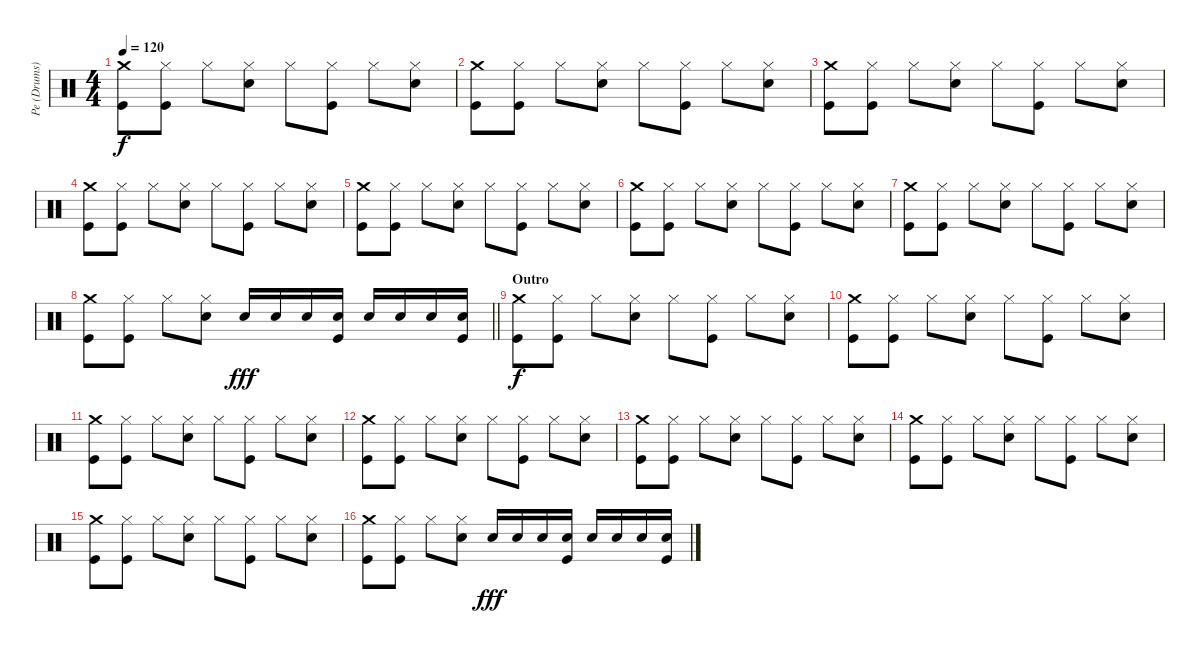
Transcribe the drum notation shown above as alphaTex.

\track ("Pe (Drums)" "Pe (Drums)") {instrument percussion}
\staff {score}
\articulation defaults
\ts (4 4)
\tempo 120
\clef neutral
\ks c
("Crash medium (hit)" "Kick (hit)").8{dy f} ("Hi-Hat (closed)" "Kick (hit)").8 "Hi-Hat (closed)".8 ("Hi-Hat (closed)" "Electric Snare (hit)").8 "Hi-Hat (closed)".8 ("Hi-Hat (closed)" "Kick (hit)").8 "Hi-Hat (closed)".8 ("Hi-Hat (closed)" "Electric Snare (hit)").8 |
("Crash medium (hit)" "Kick (hit)").8 ("Hi-Hat (closed)" "Kick (hit)").8 "Hi-Hat (closed)".8 ("Hi-Hat (closed)" "Electric Snare (hit)").8 "Hi-Hat (closed)".8 ("Hi-Hat (closed)" "Kick (hit)").8 "Hi-Hat (closed)".8 ("Hi-Hat (closed)" "Electric Snare (hit)").8 |
("Crash medium (hit)" "Kick (hit)").8 ("Hi-Hat (closed)" "Kick (hit)").8 "Hi-Hat (closed)".8 ("Hi-Hat (closed)" "Electric Snare (hit)").8 "Hi-Hat (closed)".8 ("Hi-Hat (closed)" "Kick (hit)").8 "Hi-Hat (closed)".8 ("Hi-Hat (closed)" "Electric Snare (hit)").8 |
("Crash medium (hit)" "Kick (hit)").8 ("Hi-Hat (closed)" "Kick (hit)").8 "Hi-Hat (closed)".8 ("Hi-Hat (closed)" "Electric Snare (hit)").8 "Hi-Hat (closed)".8 ("Hi-Hat (closed)" "Kick (hit)").8 "Hi-Hat (closed)".8 ("Hi-Hat (closed)" "Electric Snare (hit)").8 |
("Crash medium (hit)" "Kick (hit)").8 ("Hi-Hat (closed)" "Kick (hit)").8 "Hi-Hat (closed)".8 ("Hi-Hat (closed)" "Electric Snare (hit)").8 "Hi-Hat (closed)".8 ("Hi-Hat (closed)" "Kick (hit)").8 "Hi-Hat (closed)".8 ("Hi-Hat (closed)" "Electric Snare (hit)").8 |
("Crash medium (hit)" "Kick (hit)").8 ("Hi-Hat (closed)" "Kick (hit)").8 "Hi-Hat (closed)".8 ("Hi-Hat (closed)" "Electric Snare (hit)").8 "Hi-Hat (closed)".8 ("Hi-Hat (closed)" "Kick (hit)").8 "Hi-Hat (closed)".8 ("Hi-Hat (closed)" "Electric Snare (hit)").8 |
("Crash medium (hit)" "Kick (hit)").8 ("Hi-Hat (closed)" "Kick (hit)").8 "Hi-Hat (closed)".8 ("Hi-Hat (closed)" "Electric Snare (hit)").8 "Hi-Hat (closed)".8 ("Hi-Hat (closed)" "Kick (hit)").8 "Hi-Hat (closed)".8 ("Hi-Hat (closed)" "Electric Snare (hit)").8 |
\barLineRight lightlight
("Crash medium (hit)" "Kick (hit)").8 ("Hi-Hat (closed)" "Kick (hit)").8 "Hi-Hat (closed)".8 ("Hi-Hat (closed)" "Electric Snare (hit)").8 "Electric Snare (hit)".16{dy fff} "Electric Snare (hit)".16 "Electric Snare (hit)".16 ("Electric Snare (hit)" "Kick (hit)").16 "Electric Snare (hit)".16 "Electric Snare (hit)".16 "Electric Snare (hit)".16 ("Electric Snare (hit)" "Kick (hit)").16 |
\section ("" "Outro")
("Crash medium (hit)" "Kick (hit)").8{dy f} ("Hi-Hat (closed)" "Kick (hit)").8 "Hi-Hat (closed)".8 ("Hi-Hat (closed)" "Electric Snare (hit)").8 "Hi-Hat (closed)".8 ("Hi-Hat (closed)" "Kick (hit)").8 "Hi-Hat (closed)".8 ("Hi-Hat (closed)" "Electric Snare (hit)").8 |
("Crash medium (hit)" "Kick (hit)").8 ("Hi-Hat (closed)" "Kick (hit)").8 "Hi-Hat (closed)".8 ("Hi-Hat (closed)" "Electric Snare (hit)").8 "Hi-Hat (closed)".8 ("Hi-Hat (closed)" "Kick (hit)").8 "Hi-Hat (closed)".8 ("Hi-Hat (closed)" "Electric Snare (hit)").8 |
("Crash medium (hit)" "Kick (hit)").8 ("Hi-Hat (closed)" "Kick (hit)").8 "Hi-Hat (closed)".8 ("Hi-Hat (closed)" "Electric Snare (hit)").8 "Hi-Hat (closed)".8 ("Hi-Hat (closed)" "Kick (hit)").8 "Hi-Hat (closed)".8 ("Hi-Hat (closed)" "Electric Snare (hit)").8 |
("Crash medium (hit)" "Kick (hit)").8 ("Hi-Hat (closed)" "Kick (hit)").8 "Hi-Hat (closed)".8 ("Hi-Hat (closed)" "Electric Snare (hit)").8 "Hi-Hat (closed)".8 ("Hi-Hat (closed)" "Kick (hit)").8 "Hi-Hat (closed)".8 ("Hi-Hat (closed)" "Electric Snare (hit)").8 |
("Crash medium (hit)" "Kick (hit)").8 ("Hi-Hat (closed)" "Kick (hit)").8 "Hi-Hat (closed)".8 ("Hi-Hat (closed)" "Electric Snare (hit)").8 "Hi-Hat (closed)".8 ("Hi-Hat (closed)" "Kick (hit)").8 "Hi-Hat (closed)".8 ("Hi-Hat (closed)" "Electric Snare (hit)").8 |
("Crash medium (hit)" "Kick (hit)").8 ("Hi-Hat (closed)" "Kick (hit)").8 "Hi-Hat (closed)".8 ("Hi-Hat (closed)" "Electric Snare (hit)").8 "Hi-Hat (closed)".8 ("Hi-Hat (closed)" "Kick (hit)").8 "Hi-Hat (closed)".8 ("Hi-Hat (closed)" "Electric Snare (hit)").8 |
("Crash medium (hit)" "Kick (hit)").8 ("Hi-Hat (closed)" "Kick (hit)").8 "Hi-Hat (closed)".8 ("Hi-Hat (closed)" "Electric Snare (hit)").8 "Hi-Hat (closed)".8 ("Hi-Hat (closed)" "Kick (hit)").8 "Hi-Hat (closed)".8 ("Hi-Hat (closed)" "Electric Snare (hit)").8 |
("Crash medium (hit)" "Kick (hit)").8 ("Hi-Hat (closed)" "Kick (hit)").8 "Hi-Hat (closed)".8 ("Hi-Hat (closed)" "Electric Snare (hit)").8 "Electric Snare (hit)".16{dy fff} "Electric Snare (hit)".16 "Electric Snare (hit)".16 ("Electric Snare (hit)" "Kick (hit)").16 "Electric Snare (hit)".16 "Electric Snare (hit)".16 "Electric Snare (hit)".16 ("Electric Snare (hit)" "Kick (hit)").16
